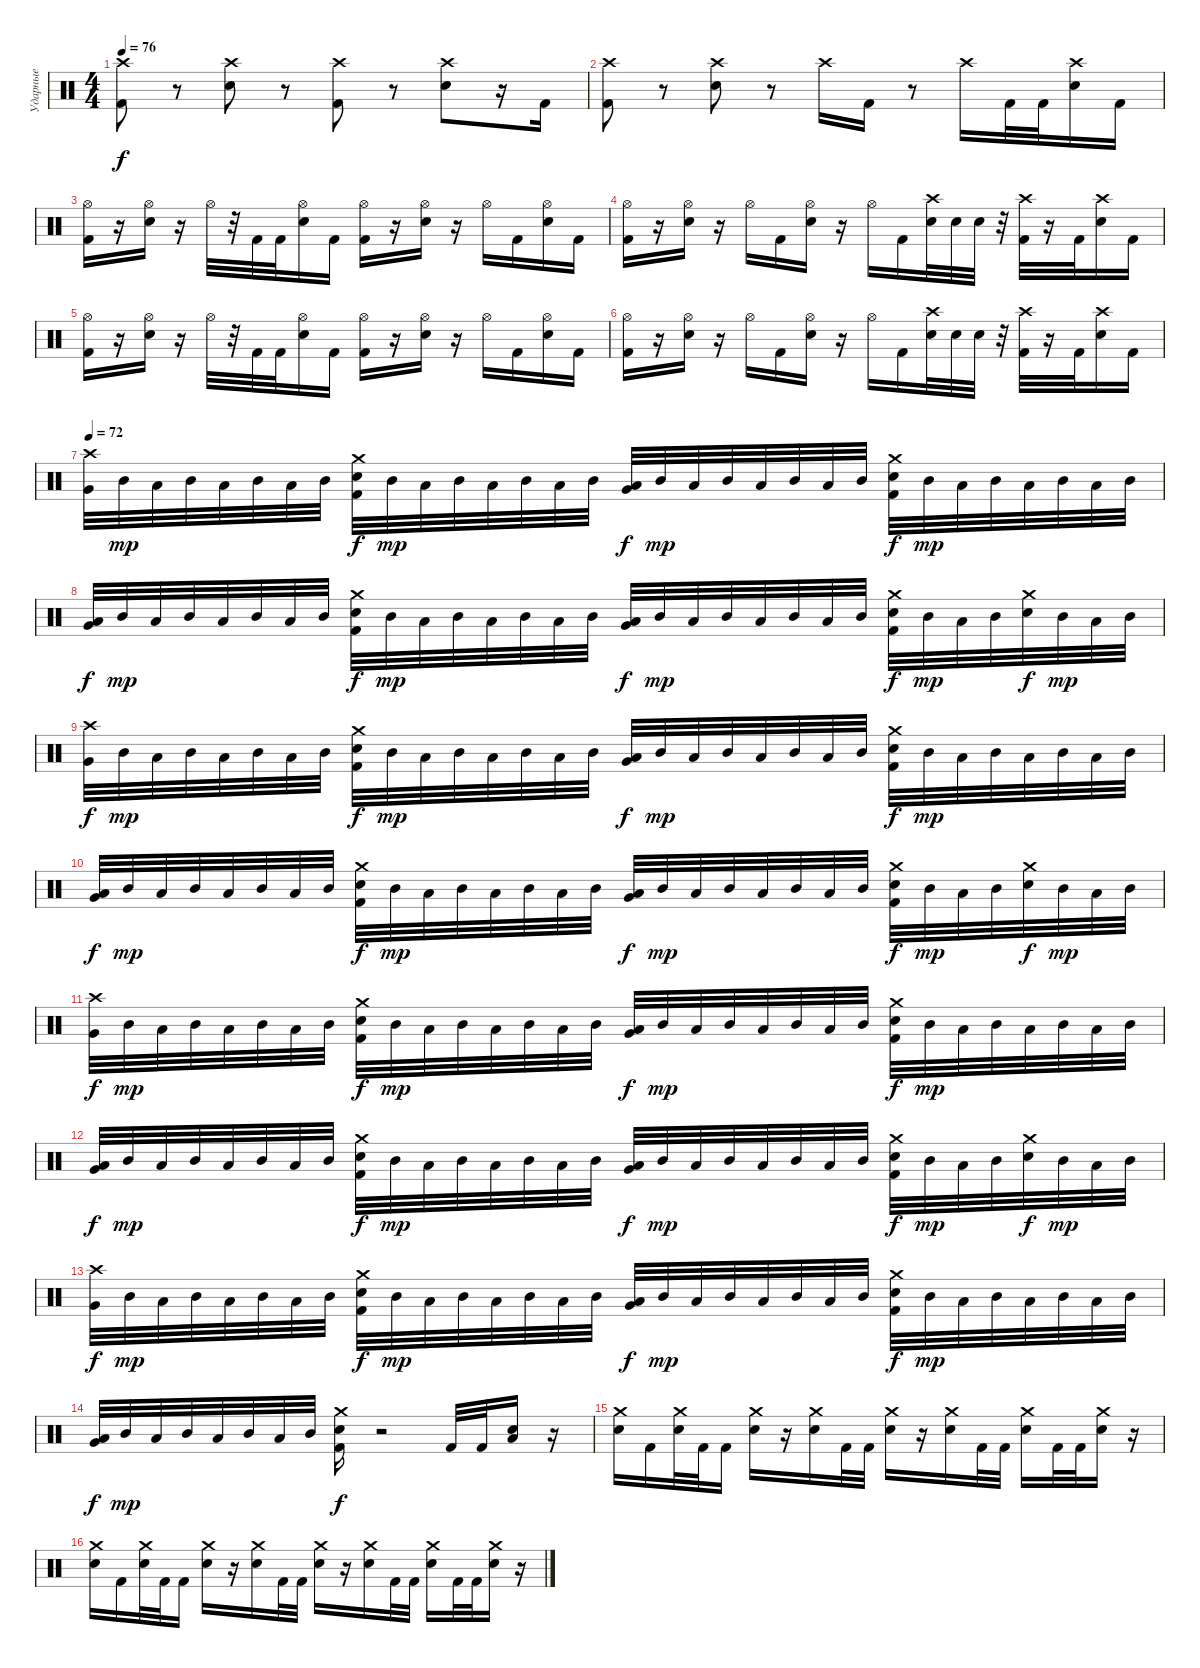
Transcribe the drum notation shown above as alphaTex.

\track ("Ударные" "Ударные") {instrument percussion}
\staff {score}
\articulation defaults
\ts (4 4)
\tempo 76
\clef neutral
\ks c
("Crash high (hit)" "Kick (hit) 2").8{dy f} r.8 ("Crash high (hit)" "Electric Snare (hit)").8 r.8 ("Crash high (hit)" "Kick (hit) 2").8 r.8 ("Crash high (hit)" "Electric Snare (hit)").8 r.16 "Kick (hit) 2".16 |
("Crash high (hit)" "Kick (hit) 2").8 r.8 ("Crash high (hit)" "Electric Snare (hit)").8 r.8 "Crash high (hit)".16 "Kick (hit) 2".16 r.8 "Crash high (hit)".16 "Kick (hit) 2".32 "Kick (hit) 2".32 ("Crash high (hit)" "Electric Snare (hit)").16 "Kick (hit) 2".16 |
("Hi-Hat (open)" "Kick (hit) 2").16 r.16 ("Hi-Hat (open)" "Electric Snare (hit)").16 r.16 "Hi-Hat (open)".32 r.32 "Kick (hit) 2".32 "Kick (hit) 2".32 ("Hi-Hat (open)" "Electric Snare (hit)").16 "Kick (hit) 2".16 ("Hi-Hat (open)" "Kick (hit) 2").16 r.16 ("Hi-Hat (open)" "Electric Snare (hit)").16 r.16 "Hi-Hat (open)".16 "Kick (hit) 2".16 ("Hi-Hat (open)" "Electric Snare (hit)").16 "Kick (hit) 2".16 |
("Hi-Hat (open)" "Kick (hit) 2").16 r.16 ("Hi-Hat (open)" "Electric Snare (hit)").16 r.16 "Hi-Hat (open)".16 "Kick (hit) 2".16 ("Hi-Hat (open)" "Electric Snare (hit)").16 r.16 "Hi-Hat (open)".16 "Kick (hit) 2".16 ("Crash high (hit)" "Electric Snare (hit)").32 "Electric Snare (hit)".32 "Electric Snare (hit)".32 r.32 ("Crash high (hit)" "Kick (hit) 2").32 r.16 "Kick (hit) 2".32 ("Crash high (hit)" "Electric Snare (hit)").16 "Kick (hit) 2".16 |
("Hi-Hat (open)" "Kick (hit) 2").16 r.16 ("Hi-Hat (open)" "Electric Snare (hit)").16 r.16 "Hi-Hat (open)".32 r.32 "Kick (hit) 2".32 "Kick (hit) 2".32 ("Hi-Hat (open)" "Electric Snare (hit)").16 "Kick (hit) 2".16 ("Hi-Hat (open)" "Kick (hit) 2").16 r.16 ("Hi-Hat (open)" "Electric Snare (hit)").16 r.16 "Hi-Hat (open)".16 "Kick (hit) 2".16 ("Hi-Hat (open)" "Electric Snare (hit)").16 "Kick (hit) 2".16 |
("Hi-Hat (open)" "Kick (hit) 2").16 r.16 ("Hi-Hat (open)" "Electric Snare (hit)").16 r.16 "Hi-Hat (open)".16 "Kick (hit) 2".16 ("Hi-Hat (open)" "Electric Snare (hit)").16 r.16 "Hi-Hat (open)".16 "Kick (hit) 2".16 ("Crash high (hit)" "Electric Snare (hit)").32 "Electric Snare (hit)".32 "Electric Snare (hit)".32 r.32 ("Crash high (hit)" "Kick (hit) 2").32 r.16 "Kick (hit) 2".32 ("Crash high (hit)" "Electric Snare (hit)").16 "Kick (hit) 2".16 |
\tempo 72
("Crash high (hit)" "Very Low Tom (hit)").32 "Mid Tom (hit)".32{dy mp} "Low Tom (hit)".32 "Mid Tom (hit)".32 "Low Tom (hit)".32 "Mid Tom (hit)".32 "Low Tom (hit)".32 "Mid Tom (hit)".32 ("Crash medium (hit)" "Electric Snare (hit)" "Kick (hit) 2").32{dy f} "Mid Tom (hit)".32{dy mp} "Low Tom (hit)".32 "Mid Tom (hit)".32 "Low Tom (hit)".32 "Mid Tom (hit)".32 "Low Tom (hit)".32 "Mid Tom (hit)".32 ("Low Floor Tom (hit)" "Very Low Tom (hit)").32{dy f} "Mid Tom (hit)".32{dy mp} "Low Tom (hit)".32 "Mid Tom (hit)".32 "Low Tom (hit)".32 "Mid Tom (hit)".32 "Low Tom (hit)".32 "Mid Tom (hit)".32 ("Crash medium (hit)" "Electric Snare (hit)" "Kick (hit) 2").32{dy f} "Mid Tom (hit)".32{dy mp} "Low Tom (hit)".32 "Mid Tom (hit)".32 "Low Tom (hit)".32 "Mid Tom (hit)".32 "Low Tom (hit)".32 "Mid Tom (hit)".32 |
("Low Floor Tom (hit)" "Very Low Tom (hit)").32{dy f} "Mid Tom (hit)".32{dy mp} "Low Tom (hit)".32 "Mid Tom (hit)".32 "Low Tom (hit)".32 "Mid Tom (hit)".32 "Low Tom (hit)".32 "Mid Tom (hit)".32 ("Crash medium (hit)" "Electric Snare (hit)" "Kick (hit) 2").32{dy f} "Mid Tom (hit)".32{dy mp} "Low Tom (hit)".32 "Mid Tom (hit)".32 "Low Tom (hit)".32 "Mid Tom (hit)".32 "Low Tom (hit)".32 "Mid Tom (hit)".32 ("Low Floor Tom (hit)" "Very Low Tom (hit)").32{dy f} "Mid Tom (hit)".32{dy mp} "Low Tom (hit)".32 "Mid Tom (hit)".32 "Low Tom (hit)".32 "Mid Tom (hit)".32 "Low Tom (hit)".32 "Mid Tom (hit)".32 ("Crash medium (hit)" "Electric Snare (hit)" "Kick (hit) 2").32{dy f} "Mid Tom (hit)".32{dy mp} "Low Tom (hit)".32 "Mid Tom (hit)".32 ("Crash medium (hit)" "Electric Snare (hit)").32{dy f} "Mid Tom (hit)".32{dy mp} "Low Tom (hit)".32 "Mid Tom (hit)".32 |
("Crash high (hit)" "Very Low Tom (hit)").32{dy f} "Mid Tom (hit)".32{dy mp} "Low Tom (hit)".32 "Mid Tom (hit)".32 "Low Tom (hit)".32 "Mid Tom (hit)".32 "Low Tom (hit)".32 "Mid Tom (hit)".32 ("Crash medium (hit)" "Electric Snare (hit)" "Kick (hit) 2").32{dy f} "Mid Tom (hit)".32{dy mp} "Low Tom (hit)".32 "Mid Tom (hit)".32 "Low Tom (hit)".32 "Mid Tom (hit)".32 "Low Tom (hit)".32 "Mid Tom (hit)".32 ("Low Floor Tom (hit)" "Very Low Tom (hit)").32{dy f} "Mid Tom (hit)".32{dy mp} "Low Tom (hit)".32 "Mid Tom (hit)".32 "Low Tom (hit)".32 "Mid Tom (hit)".32 "Low Tom (hit)".32 "Mid Tom (hit)".32 ("Crash medium (hit)" "Electric Snare (hit)" "Kick (hit) 2").32{dy f} "Mid Tom (hit)".32{dy mp} "Low Tom (hit)".32 "Mid Tom (hit)".32 "Low Tom (hit)".32 "Mid Tom (hit)".32 "Low Tom (hit)".32 "Mid Tom (hit)".32 |
("Low Floor Tom (hit)" "Very Low Tom (hit)").32{dy f} "Mid Tom (hit)".32{dy mp} "Low Tom (hit)".32 "Mid Tom (hit)".32 "Low Tom (hit)".32 "Mid Tom (hit)".32 "Low Tom (hit)".32 "Mid Tom (hit)".32 ("Crash medium (hit)" "Electric Snare (hit)" "Kick (hit) 2").32{dy f} "Mid Tom (hit)".32{dy mp} "Low Tom (hit)".32 "Mid Tom (hit)".32 "Low Tom (hit)".32 "Mid Tom (hit)".32 "Low Tom (hit)".32 "Mid Tom (hit)".32 ("Low Floor Tom (hit)" "Very Low Tom (hit)").32{dy f} "Mid Tom (hit)".32{dy mp} "Low Tom (hit)".32 "Mid Tom (hit)".32 "Low Tom (hit)".32 "Mid Tom (hit)".32 "Low Tom (hit)".32 "Mid Tom (hit)".32 ("Crash medium (hit)" "Electric Snare (hit)" "Kick (hit) 2").32{dy f} "Mid Tom (hit)".32{dy mp} "Low Tom (hit)".32 "Mid Tom (hit)".32 ("Crash medium (hit)" "Electric Snare (hit)").32{dy f} "Mid Tom (hit)".32{dy mp} "Low Tom (hit)".32 "Mid Tom (hit)".32 |
("Crash high (hit)" "Very Low Tom (hit)").32{dy f} "Mid Tom (hit)".32{dy mp} "Low Tom (hit)".32 "Mid Tom (hit)".32 "Low Tom (hit)".32 "Mid Tom (hit)".32 "Low Tom (hit)".32 "Mid Tom (hit)".32 ("Crash medium (hit)" "Electric Snare (hit)" "Kick (hit) 2").32{dy f} "Mid Tom (hit)".32{dy mp} "Low Tom (hit)".32 "Mid Tom (hit)".32 "Low Tom (hit)".32 "Mid Tom (hit)".32 "Low Tom (hit)".32 "Mid Tom (hit)".32 ("Low Floor Tom (hit)" "Very Low Tom (hit)").32{dy f} "Mid Tom (hit)".32{dy mp} "Low Tom (hit)".32 "Mid Tom (hit)".32 "Low Tom (hit)".32 "Mid Tom (hit)".32 "Low Tom (hit)".32 "Mid Tom (hit)".32 ("Crash medium (hit)" "Electric Snare (hit)" "Kick (hit) 2").32{dy f} "Mid Tom (hit)".32{dy mp} "Low Tom (hit)".32 "Mid Tom (hit)".32 "Low Tom (hit)".32 "Mid Tom (hit)".32 "Low Tom (hit)".32 "Mid Tom (hit)".32 |
("Low Floor Tom (hit)" "Very Low Tom (hit)").32{dy f} "Mid Tom (hit)".32{dy mp} "Low Tom (hit)".32 "Mid Tom (hit)".32 "Low Tom (hit)".32 "Mid Tom (hit)".32 "Low Tom (hit)".32 "Mid Tom (hit)".32 ("Crash medium (hit)" "Electric Snare (hit)" "Kick (hit) 2").32{dy f} "Mid Tom (hit)".32{dy mp} "Low Tom (hit)".32 "Mid Tom (hit)".32 "Low Tom (hit)".32 "Mid Tom (hit)".32 "Low Tom (hit)".32 "Mid Tom (hit)".32 ("Low Floor Tom (hit)" "Very Low Tom (hit)").32{dy f} "Mid Tom (hit)".32{dy mp} "Low Tom (hit)".32 "Mid Tom (hit)".32 "Low Tom (hit)".32 "Mid Tom (hit)".32 "Low Tom (hit)".32 "Mid Tom (hit)".32 ("Crash medium (hit)" "Electric Snare (hit)" "Kick (hit) 2").32{dy f} "Mid Tom (hit)".32{dy mp} "Low Tom (hit)".32 "Mid Tom (hit)".32 ("Crash medium (hit)" "Electric Snare (hit)").32{dy f} "Mid Tom (hit)".32{dy mp} "Low Tom (hit)".32 "Mid Tom (hit)".32 |
("Crash high (hit)" "Very Low Tom (hit)").32{dy f} "Mid Tom (hit)".32{dy mp} "Low Tom (hit)".32 "Mid Tom (hit)".32 "Low Tom (hit)".32 "Mid Tom (hit)".32 "Low Tom (hit)".32 "Mid Tom (hit)".32 ("Crash medium (hit)" "Electric Snare (hit)" "Kick (hit) 2").32{dy f} "Mid Tom (hit)".32{dy mp} "Low Tom (hit)".32 "Mid Tom (hit)".32 "Low Tom (hit)".32 "Mid Tom (hit)".32 "Low Tom (hit)".32 "Mid Tom (hit)".32 ("Low Floor Tom (hit)" "Very Low Tom (hit)").32{dy f} "Mid Tom (hit)".32{dy mp} "Low Tom (hit)".32 "Mid Tom (hit)".32 "Low Tom (hit)".32 "Mid Tom (hit)".32 "Low Tom (hit)".32 "Mid Tom (hit)".32 ("Crash medium (hit)" "Electric Snare (hit)" "Kick (hit) 2").32{dy f} "Mid Tom (hit)".32{dy mp} "Low Tom (hit)".32 "Mid Tom (hit)".32 "Low Tom (hit)".32 "Mid Tom (hit)".32 "Low Tom (hit)".32 "Mid Tom (hit)".32 |
("Low Floor Tom (hit)" "Very Low Tom (hit)").32{dy f} "Mid Tom (hit)".32{dy mp} "Low Tom (hit)".32 "Mid Tom (hit)".32 "Low Tom (hit)".32 "Mid Tom (hit)".32 "Low Tom (hit)".32 "Mid Tom (hit)".32 ("Crash medium (hit)" "Electric Snare (hit)" "Kick (hit) 2").16{dy f} r.2 "Kick (hit) 2".32 "Kick (hit) 2".32 ("Low Tom (hit)" "Electric Snare (hit)").16 r.16 |
("Crash medium (hit)" "Electric Snare (hit)").16 "Kick (hit) 2".16 ("Crash medium (hit)" "Electric Snare (hit)").32 "Kick (hit) 2".32 "Kick (hit) 2".16 ("Crash medium (hit)" "Electric Snare (hit)").16 r.16 ("Crash medium (hit)" "Electric Snare (hit)").16 "Kick (hit) 2".32 "Kick (hit) 2".32 ("Crash medium (hit)" "Electric Snare (hit)").16 r.16 ("Crash medium (hit)" "Electric Snare (hit)").16 "Kick (hit) 2".32 "Kick (hit) 2".32 ("Crash medium (hit)" "Electric Snare (hit)").16 "Kick (hit) 2".32 "Kick (hit) 2".32 ("Crash medium (hit)" "Electric Snare (hit)").16 r.16 |
("Crash medium (hit)" "Electric Snare (hit)").16 "Kick (hit) 2".16 ("Crash medium (hit)" "Electric Snare (hit)").32 "Kick (hit) 2".32 "Kick (hit) 2".16 ("Crash medium (hit)" "Electric Snare (hit)").16 r.16 ("Crash medium (hit)" "Electric Snare (hit)").16 "Kick (hit) 2".32 "Kick (hit) 2".32 ("Crash medium (hit)" "Electric Snare (hit)").16 r.16 ("Crash medium (hit)" "Electric Snare (hit)").16 "Kick (hit) 2".32 "Kick (hit) 2".32 ("Crash medium (hit)" "Electric Snare (hit)").16 "Kick (hit) 2".32 "Kick (hit) 2".32 ("Crash medium (hit)" "Electric Snare (hit)").16 r.16
